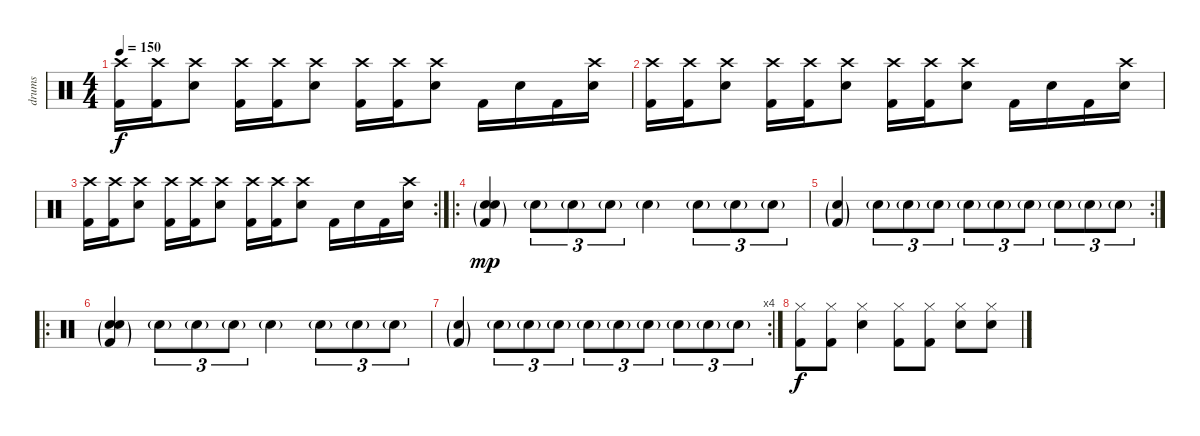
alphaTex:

\track ("drums" "drums") {instrument percussion}
\staff {score}
\articulation defaults
\ts (4 4)
\tempo 150
\clef neutral
\ks c
("Crash high (hit)" "Kick (hit) 2").16{dy f} ("Crash high (hit)" "Kick (hit) 2").16 ("Crash high (hit)" "Snare (hit) 2").8 ("Crash high (hit)" "Kick (hit) 2").16 ("Crash high (hit)" "Kick (hit) 2").16 ("Crash high (hit)" "Snare (hit) 2").8 ("Crash high (hit)" "Kick (hit) 2").16 ("Crash high (hit)" "Kick (hit) 2").16 ("Crash high (hit)" "Snare (hit) 2").8 "Kick (hit) 2".16 "Snare (hit) 2".16 "Kick (hit) 2".16 ("Crash high (hit)" "Snare (hit) 2").16 |
("Crash high (hit)" "Kick (hit) 2").16 ("Crash high (hit)" "Kick (hit) 2").16 ("Crash high (hit)" "Snare (hit) 2").8 ("Crash high (hit)" "Kick (hit) 2").16 ("Crash high (hit)" "Kick (hit) 2").16 ("Crash high (hit)" "Snare (hit) 2").8 ("Crash high (hit)" "Kick (hit) 2").16 ("Crash high (hit)" "Kick (hit) 2").16 ("Crash high (hit)" "Snare (hit) 2").8 "Kick (hit) 2".16 "Snare (hit) 2".16 "Kick (hit) 2".16 ("Crash high (hit)" "Snare (hit) 2").16 |
\rc 2
("Crash high (hit)" "Kick (hit) 2").16 ("Crash high (hit)" "Kick (hit) 2").16 ("Crash high (hit)" "Snare (hit) 2").8 ("Crash high (hit)" "Kick (hit) 2").16 ("Crash high (hit)" "Kick (hit) 2").16 ("Crash high (hit)" "Snare (hit) 2").8 ("Crash high (hit)" "Kick (hit) 2").16 ("Crash high (hit)" "Kick (hit) 2").16 ("Crash high (hit)" "Snare (hit) 2").8 "Kick (hit) 2".16 "Snare (hit) 2".16 "Kick (hit) 2".16 ("Crash high (hit)" "Snare (hit) 2").16 |
\ro
("Metronome (bell)"{g} "Electric Snare (hit)"{g} "Kick (hit) 2"{g}).4{dy mp} "Electric Snare (hit)"{g}.8{tu (3 2)} "Electric Snare (hit)"{g}.8{tu (3 2)} "Electric Snare (hit)"{g}.8{tu (3 2)} "Electric Snare (hit)"{g}.4 "Electric Snare (hit)"{g}.8{tu (3 2)} "Electric Snare (hit)"{g}.8{tu (3 2)} "Electric Snare (hit)"{g}.8{tu (3 2)} |
\rc 2
("Electric Snare (hit)"{g} "Kick (hit) 2"{g}).4 "Electric Snare (hit)"{g}.8{tu (3 2)} "Electric Snare (hit)"{g}.8{tu (3 2)} "Electric Snare (hit)"{g}.8{tu (3 2)} "Electric Snare (hit)"{g}.8{tu (3 2)} "Electric Snare (hit)"{g}.8{tu (3 2)} "Electric Snare (hit)"{g}.8{tu (3 2)} "Electric Snare (hit)"{g}.8{tu (3 2)} "Electric Snare (hit)"{g}.8{tu (3 2)} "Electric Snare (hit)"{g}.8{tu (3 2)} |
\ro
("Metronome (bell)"{g} "Electric Snare (hit)"{g} "Kick (hit) 2"{g}).4 "Electric Snare (hit)"{g}.8{tu (3 2)} "Electric Snare (hit)"{g}.8{tu (3 2)} "Electric Snare (hit)"{g}.8{tu (3 2)} "Electric Snare (hit)"{g}.4 "Electric Snare (hit)"{g}.8{tu (3 2)} "Electric Snare (hit)"{g}.8{tu (3 2)} "Electric Snare (hit)"{g}.8{tu (3 2)} |
\rc 4
("Electric Snare (hit)"{g} "Kick (hit) 2"{g}).4 "Electric Snare (hit)"{g}.8{tu (3 2)} "Electric Snare (hit)"{g}.8{tu (3 2)} "Electric Snare (hit)"{g}.8{tu (3 2)} "Electric Snare (hit)"{g}.8{tu (3 2)} "Electric Snare (hit)"{g}.8{tu (3 2)} "Electric Snare (hit)"{g}.8{tu (3 2)} "Electric Snare (hit)"{g}.8{tu (3 2)} "Electric Snare (hit)"{g}.8{tu (3 2)} "Electric Snare (hit)"{g}.8{tu (3 2)} |
("Hi-Hat (closed)" "Kick (hit) 2").8{dy f} ("Hi-Hat (closed)" "Kick (hit) 2").8 ("Hi-Hat (closed)" "Snare (hit) 2").4 ("Hi-Hat (closed)" "Kick (hit) 2").8 ("Hi-Hat (closed)" "Kick (hit) 2").8 ("Hi-Hat (closed)" "Snare (hit) 2").8 ("Hi-Hat (closed)" "Snare (hit) 2").8
